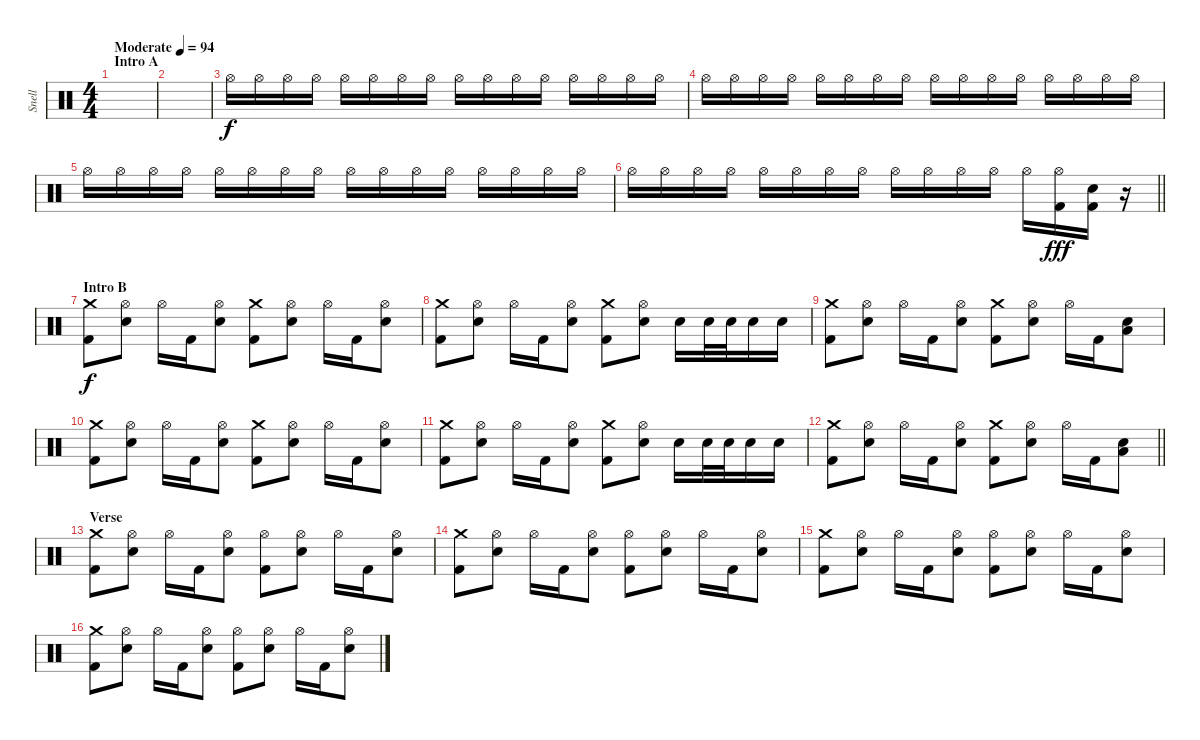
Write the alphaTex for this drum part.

\track ("Snell" "Snell") {instrument percussion}
\staff {score}
\articulation defaults
\ts (4 4)
\section ("" "Intro A")
\tempo (94 "Moderate")
\clef neutral
\ks c
|
|
"Hi-Hat (open)".16 "Hi-Hat (open)".16 "Hi-Hat (open)".16 "Hi-Hat (open)".16 "Hi-Hat (open)".16 "Hi-Hat (open)".16 "Hi-Hat (open)".16 "Hi-Hat (open)".16 "Hi-Hat (open)".16 "Hi-Hat (open)".16 "Hi-Hat (open)".16 "Hi-Hat (open)".16 "Hi-Hat (open)".16 "Hi-Hat (open)".16 "Hi-Hat (open)".16 "Hi-Hat (open)".16 |
"Hi-Hat (open)".16 "Hi-Hat (open)".16 "Hi-Hat (open)".16 "Hi-Hat (open)".16 "Hi-Hat (open)".16 "Hi-Hat (open)".16 "Hi-Hat (open)".16 "Hi-Hat (open)".16 "Hi-Hat (open)".16 "Hi-Hat (open)".16 "Hi-Hat (open)".16 "Hi-Hat (open)".16 "Hi-Hat (open)".16 "Hi-Hat (open)".16 "Hi-Hat (open)".16 "Hi-Hat (open)".16 |
"Hi-Hat (open)".16 "Hi-Hat (open)".16 "Hi-Hat (open)".16 "Hi-Hat (open)".16 "Hi-Hat (open)".16 "Hi-Hat (open)".16 "Hi-Hat (open)".16 "Hi-Hat (open)".16 "Hi-Hat (open)".16 "Hi-Hat (open)".16 "Hi-Hat (open)".16 "Hi-Hat (open)".16 "Hi-Hat (open)".16 "Hi-Hat (open)".16 "Hi-Hat (open)".16 "Hi-Hat (open)".16 |
\barLineRight lightlight "Hi-Hat (open)".16 "Hi-Hat (open)".16 "Hi-Hat (open)".16 "Hi-Hat (open)".16 "Hi-Hat (open)".16 "Hi-Hat (open)".16 "Hi-Hat (open)".16 "Hi-Hat (open)".16 "Hi-Hat (open)".16 "Hi-Hat (open)".16 "Hi-Hat (open)".16 "Hi-Hat (open)".16 "Hi-Hat (open)".16
("Hi-Hat (open)" "Kick (hit) 2").16{dy fff} ("Electric Snare (hit)" "Kick (hit) 2").16 r.16 |
\section ("" "Intro B")
("Crash medium (hit)" "Kick (hit) 2").8{dy f} ("Hi-Hat (open)" "Electric Snare (hit)").8 "Hi-Hat (open)".16 "Kick (hit) 2".16 ("Hi-Hat (open)" "Electric Snare (hit)").8 ("Crash medium (hit)" "Kick (hit) 2").8 ("Hi-Hat (open)" "Electric Snare (hit)").8 "Hi-Hat (open)".16 "Kick (hit) 2".16 ("Hi-Hat (open)" "Electric Snare (hit)").8 |
("Crash medium (hit)" "Kick (hit) 2").8 ("Hi-Hat (open)" "Electric Snare (hit)").8 "Hi-Hat (open)".16 "Kick (hit) 2".16 ("Hi-Hat (open)" "Electric Snare (hit)").8 ("Crash medium (hit)" "Kick (hit) 2").8 ("Hi-Hat (open)" "Electric Snare (hit)").8 "Electric Snare (hit)".16 "Electric Snare (hit)".32 "Electric Snare (hit)".32 "Electric Snare (hit)".16 "Electric Snare (hit)".16 |
("Crash medium (hit)" "Kick (hit) 2").8 ("Hi-Hat (open)" "Electric Snare (hit)").8 "Hi-Hat (open)".16 "Kick (hit) 2".16 ("Hi-Hat (open)" "Electric Snare (hit)").8 ("Crash medium (hit)" "Kick (hit) 2").8 ("Hi-Hat (open)" "Electric Snare (hit)").8 "Hi-Hat (open)".16 "Kick (hit) 2".16 ("Low Tom (hit)" "Electric Snare (hit)").8 |
("Crash medium (hit)" "Kick (hit) 2").8 ("Hi-Hat (open)" "Electric Snare (hit)").8 "Hi-Hat (open)".16 "Kick (hit) 2".16 ("Hi-Hat (open)" "Electric Snare (hit)").8 ("Crash medium (hit)" "Kick (hit) 2").8 ("Hi-Hat (open)" "Electric Snare (hit)").8 "Hi-Hat (open)".16 "Kick (hit) 2".16 ("Hi-Hat (open)" "Electric Snare (hit)").8 |
("Crash medium (hit)" "Kick (hit) 2").8 ("Hi-Hat (open)" "Electric Snare (hit)").8 "Hi-Hat (open)".16 "Kick (hit) 2".16 ("Hi-Hat (open)" "Electric Snare (hit)").8 ("Crash medium (hit)" "Kick (hit) 2").8 ("Hi-Hat (open)" "Electric Snare (hit)").8 "Electric Snare (hit)".16 "Electric Snare (hit)".32 "Electric Snare (hit)".32 "Electric Snare (hit)".16 "Electric Snare (hit)".16 |
\barLineRight lightlight
("Crash medium (hit)" "Kick (hit) 2").8 ("Hi-Hat (open)" "Electric Snare (hit)").8 "Hi-Hat (open)".16 "Kick (hit) 2".16 ("Hi-Hat (open)" "Electric Snare (hit)").8 ("Crash medium (hit)" "Kick (hit) 2").8 ("Hi-Hat (open)" "Electric Snare (hit)").8 "Hi-Hat (open)".16 "Kick (hit) 2".16 ("Low Tom (hit)" "Electric Snare (hit)").8 |
\section ("" "Verse")
("Crash medium (hit)" "Kick (hit) 2").8 ("Hi-Hat (open)" "Electric Snare (hit)").8 "Hi-Hat (open)".16 "Kick (hit) 2".16 ("Hi-Hat (open)" "Electric Snare (hit)").8 ("Hi-Hat (open)" "Kick (hit) 2").8 ("Hi-Hat (open)" "Electric Snare (hit)").8 "Hi-Hat (open)".16 "Kick (hit) 2".16 ("Hi-Hat (open)" "Electric Snare (hit)").8 |
("Crash medium (hit)" "Kick (hit) 2").8 ("Hi-Hat (open)" "Electric Snare (hit)").8 "Hi-Hat (open)".16 "Kick (hit) 2".16 ("Hi-Hat (open)" "Electric Snare (hit)").8 ("Hi-Hat (open)" "Kick (hit) 2").8 ("Hi-Hat (open)" "Electric Snare (hit)").8 "Hi-Hat (open)".16 "Kick (hit) 2".16 ("Hi-Hat (open)" "Electric Snare (hit)").8 |
("Crash medium (hit)" "Kick (hit) 2").8 ("Hi-Hat (open)" "Electric Snare (hit)").8 "Hi-Hat (open)".16 "Kick (hit) 2".16 ("Hi-Hat (open)" "Electric Snare (hit)").8 ("Hi-Hat (open)" "Kick (hit) 2").8 ("Hi-Hat (open)" "Electric Snare (hit)").8 "Hi-Hat (open)".16 "Kick (hit) 2".16 ("Hi-Hat (open)" "Electric Snare (hit)").8 |
("Crash medium (hit)" "Kick (hit) 2").8 ("Hi-Hat (open)" "Electric Snare (hit)").8 "Hi-Hat (open)".16 "Kick (hit) 2".16 ("Hi-Hat (open)" "Electric Snare (hit)").8 ("Hi-Hat (open)" "Kick (hit) 2").8 ("Hi-Hat (open)" "Electric Snare (hit)").8 "Hi-Hat (open)".16 "Kick (hit) 2".16 ("Hi-Hat (open)" "Electric Snare (hit)").8
